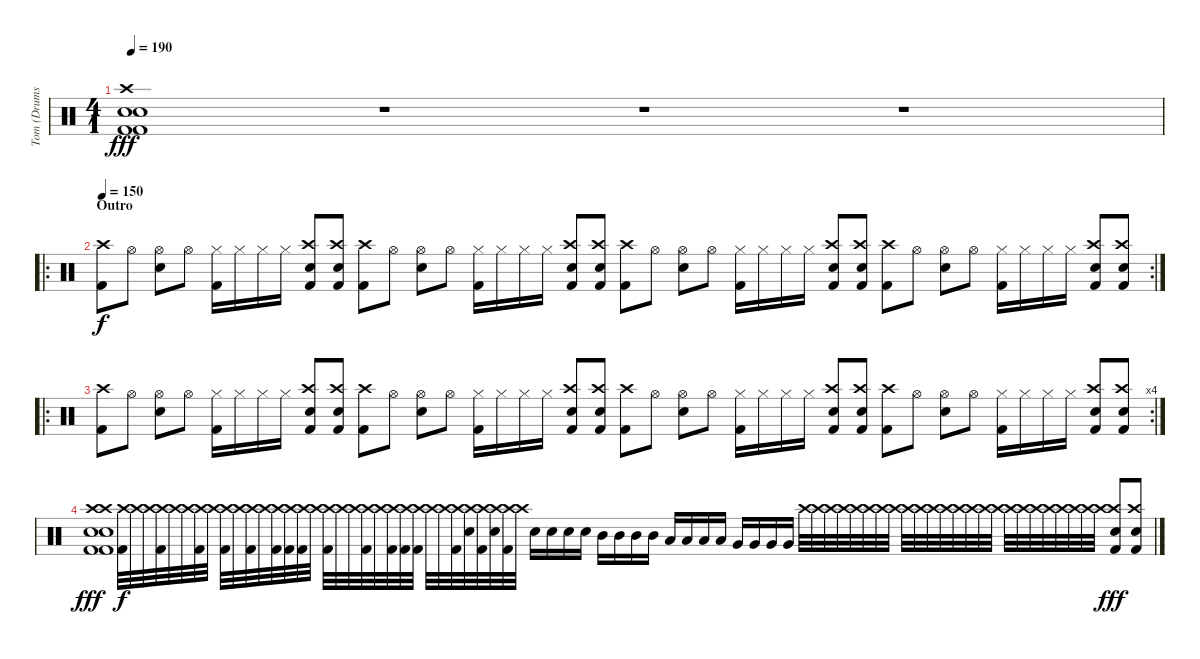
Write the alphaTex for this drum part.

\track ("Tom (Drums)" "Tom (Drums") {instrument percussion}
\staff {score}
\articulation defaults
\ts (4 1)
\tempo 190
\clef neutral
\ks c
("Electric Snare (hit)" "Crash high (hit)" "Kick (hit) 2" "Kick (hit) 2" "Electric Snare (hit)").1{dy fff} r.1 r.1 r.1 |
\ro
\rc 2
\section ("" "Outro")
\tempo 150
("Crash high (hit)" "Kick (hit) 2").8{dy f} "Hi-Hat (open)".8 ("Hi-Hat (open)" "Electric Snare (hit)").8 "Hi-Hat (open)".8 ("Hi-Hat (closed)" "Kick (hit) 2").16 "Hi-Hat (closed)".16 "Hi-Hat (closed)".16 "Hi-Hat (closed)".16 ("Crash high (hit)" "Electric Snare (hit)" "Kick (hit) 2").8 ("Crash high (hit)" "Electric Snare (hit)" "Kick (hit) 2").8 ("Crash high (hit)" "Kick (hit) 2").8 "Hi-Hat (open)".8 ("Hi-Hat (open)" "Electric Snare (hit)").8 "Hi-Hat (open)".8 ("Hi-Hat (closed)" "Kick (hit) 2").16 "Hi-Hat (closed)".16 "Hi-Hat (closed)".16 "Hi-Hat (closed)".16 ("Crash high (hit)" "Electric Snare (hit)" "Kick (hit) 2").8 ("Crash high (hit)" "Electric Snare (hit)" "Kick (hit) 2").8 ("Crash high (hit)" "Kick (hit) 2").8 "Hi-Hat (open)".8 ("Hi-Hat (open)" "Electric Snare (hit)").8 "Hi-Hat (open)".8 ("Hi-Hat (closed)" "Kick (hit) 2").16 "Hi-Hat (closed)".16 "Hi-Hat (closed)".16 "Hi-Hat (closed)".16 ("Crash high (hit)" "Kick (hit) 2" "Electric Snare (hit)").8 ("Crash high (hit)" "Kick (hit) 2" "Electric Snare (hit)").8 ("Crash high (hit)" "Kick (hit) 2").8 "Hi-Hat (open)".8 ("Hi-Hat (open)" "Electric Snare (hit)").8 "Hi-Hat (open)".8 ("Hi-Hat (closed)" "Kick (hit) 2").16 "Hi-Hat (closed)".16 "Hi-Hat (closed)".16 "Hi-Hat (closed)".16 ("Crash high (hit)" "Electric Snare (hit)" "Kick (hit) 2").8 ("Crash high (hit)" "Electric Snare (hit)" "Kick (hit) 2").8 |
\ro
\rc 4
("Crash high (hit)" "Kick (hit) 2").8 "Hi-Hat (open)".8 ("Hi-Hat (open)" "Electric Snare (hit)").8 "Hi-Hat (open)".8 ("Hi-Hat (closed)" "Kick (hit) 2").16 "Hi-Hat (closed)".16 "Hi-Hat (closed)".16 "Hi-Hat (closed)".16 ("Crash high (hit)" "Electric Snare (hit)" "Kick (hit) 2").8 ("Crash high (hit)" "Electric Snare (hit)" "Kick (hit) 2").8 ("Crash high (hit)" "Kick (hit) 2").8 "Hi-Hat (open)".8 ("Hi-Hat (open)" "Electric Snare (hit)").8 "Hi-Hat (open)".8 ("Hi-Hat (closed)" "Kick (hit) 2").16 "Hi-Hat (closed)".16 "Hi-Hat (closed)".16 "Hi-Hat (closed)".16 ("Crash high (hit)" "Electric Snare (hit)" "Kick (hit) 2").8 ("Crash high (hit)" "Electric Snare (hit)" "Kick (hit) 2").8 ("Crash high (hit)" "Kick (hit) 2").8 "Hi-Hat (open)".8 ("Hi-Hat (open)" "Electric Snare (hit)").8 "Hi-Hat (open)".8 ("Hi-Hat (closed)" "Kick (hit) 2").16 "Hi-Hat (closed)".16 "Hi-Hat (closed)".16 "Hi-Hat (closed)".16 ("Crash high (hit)" "Kick (hit) 2" "Electric Snare (hit)").8 ("Crash high (hit)" "Kick (hit) 2" "Electric Snare (hit)").8 ("Crash high (hit)" "Kick (hit) 2").8 "Hi-Hat (open)".8 ("Hi-Hat (open)" "Electric Snare (hit)").8 "Hi-Hat (open)".8 ("Hi-Hat (closed)" "Kick (hit) 2").16 "Hi-Hat (closed)".16 "Hi-Hat (closed)".16 "Hi-Hat (closed)".16 ("Crash high (hit)" "Electric Snare (hit)" "Kick (hit) 2").8 ("Crash high (hit)" "Electric Snare (hit)" "Kick (hit) 2").8 |
("Crash high (hit)" "Crash high (hit)" "Electric Snare (hit)" "Electric Snare (hit)" "Kick (hit) 2" "Kick (hit) 2").1{dy fff} ("Crash high (hit)" "Kick (hit) 2").32{dy f} "Crash high (hit)".32 "Crash high (hit)".32 ("Crash high (hit)" "Kick (hit) 2").32 "Crash high (hit)".32 "Crash high (hit)".32 ("Crash high (hit)" "Kick (hit) 2").32 "Crash high (hit)".32 ("Crash high (hit)" "Kick (hit) 2").32 "Crash high (hit)".32 ("Crash high (hit)" "Kick (hit) 2").32 "Crash high (hit)".32 ("Crash high (hit)" "Kick (hit) 2").32 ("Crash high (hit)" "Kick (hit) 2").32 ("Crash high (hit)" "Kick (hit) 2").32 "Crash high (hit)".32 ("Crash high (hit)" "Kick (hit) 2").32 "Crash high (hit)".32 "Crash high (hit)".32 ("Crash high (hit)" "Kick (hit) 2").32 "Crash high (hit)".32 ("Crash high (hit)" "Kick (hit) 2").32 ("Crash high (hit)" "Kick (hit) 2").32 ("Crash high (hit)" "Kick (hit) 2").32 "Crash high (hit)".32 "Crash high (hit)".32 ("Crash high (hit)" "Kick (hit) 2").32 ("Crash high (hit)" "Snare (hit)").32 ("Crash high (hit)" "Kick (hit) 2").32 ("Crash high (hit)" "Snare (hit)").32 ("Crash high (hit)" "Kick (hit) 2").32 "Crash high (hit)".32 "Electric Snare (hit)".16 "Electric Snare (hit)".16 "Electric Snare (hit)".16 "Electric Snare (hit)".16 "Mid Tom (hit)".16 "Mid Tom (hit)".16 "Mid Tom (hit)".16 "Mid Tom (hit)".16 "Low Tom (hit)".16 "Low Tom (hit)".16 "Low Tom (hit)".16 "Low Tom (hit)".16 "Very Low Tom (hit)".16 "Very Low Tom (hit)".16 "Very Low Tom (hit)".16 "Very Low Tom (hit)".16 "Crash high (hit)".32 "Crash high (hit)".32 "Crash high (hit)".32 "Crash high (hit)".32 "Crash high (hit)".32 "Crash high (hit)".32 "Crash high (hit)".32 "Crash high (hit)".32 "Crash high (hit)".32 "Crash high (hit)".32 "Crash high (hit)".32 "Crash high (hit)".32 "Crash high (hit)".32 "Crash high (hit)".32 "Crash high (hit)".32 "Crash high (hit)".32 "Crash high (hit)".32 "Crash high (hit)".32 "Crash high (hit)".32 "Crash high (hit)".32 "Crash high (hit)".32 "Crash high (hit)".32 "Crash high (hit)".32 "Crash high (hit)".32 ("Crash high (hit)" "Electric Snare (hit)" "Kick (hit) 2").8{dy fff} ("Crash high (hit)" "Electric Snare (hit)" "Kick (hit) 2").8
